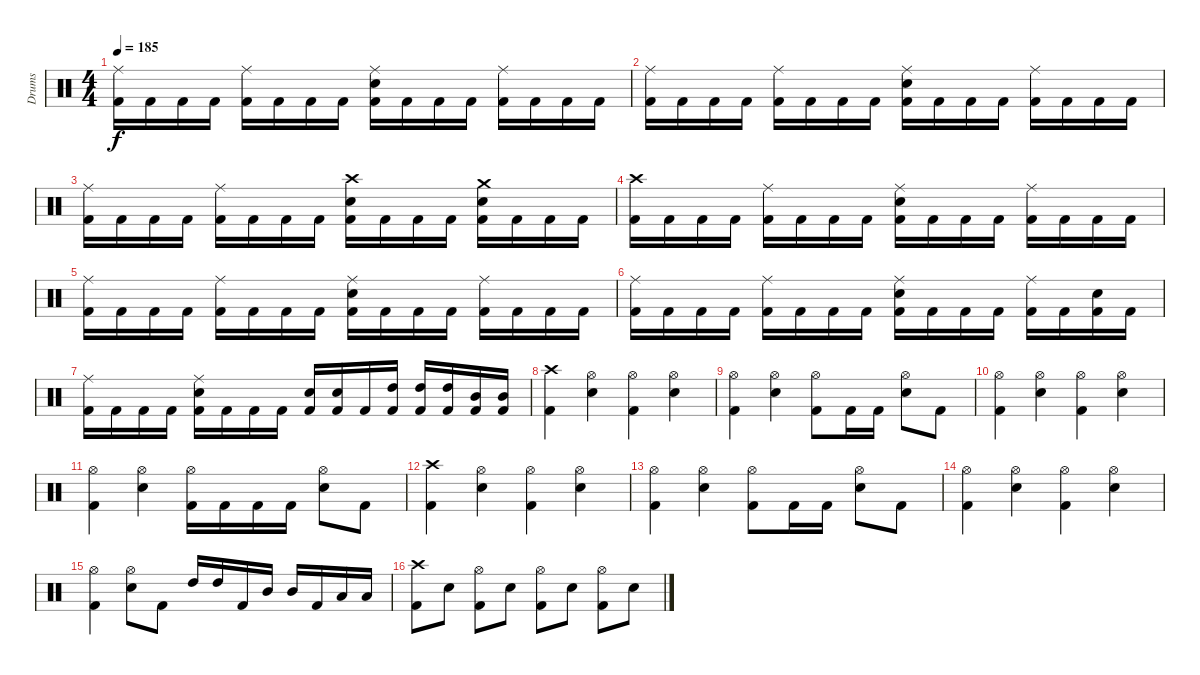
\track ("Drums" "Drums") {instrument percussion}
\staff {score}
\articulation defaults
\ts (4 4)
\tempo 185
\clef neutral
\ks c
("Ride (middle)" "Kick (hit) 2").16{dy f} "Kick (hit) 2".16 "Kick (hit) 2".16 "Kick (hit) 2".16 ("Ride (middle)" "Kick (hit) 2").16 "Kick (hit) 2".16 "Kick (hit) 2".16 "Kick (hit) 2".16 ("Ride (middle)" "Electric Snare (hit)" "Kick (hit) 2").16 "Kick (hit) 2".16 "Kick (hit) 2".16 "Kick (hit) 2".16 ("Ride (middle)" "Kick (hit) 2").16 "Kick (hit) 2".16 "Kick (hit) 2".16 "Kick (hit) 2".16 |
("Ride (middle)" "Kick (hit) 2").16 "Kick (hit) 2".16 "Kick (hit) 2".16 "Kick (hit) 2".16 ("Ride (middle)" "Kick (hit) 2").16 "Kick (hit) 2".16 "Kick (hit) 2".16 "Kick (hit) 2".16 ("Ride (middle)" "Electric Snare (hit)" "Kick (hit) 2").16 "Kick (hit) 2".16 "Kick (hit) 2".16 "Kick (hit) 2".16 ("Ride (middle)" "Kick (hit) 2").16 "Kick (hit) 2".16 "Kick (hit) 2".16 "Kick (hit) 2".16 |
("Ride (middle)" "Kick (hit) 2").16 "Kick (hit) 2".16 "Kick (hit) 2".16 "Kick (hit) 2".16 ("Ride (middle)" "Kick (hit) 2").16 "Kick (hit) 2".16 "Kick (hit) 2".16 "Kick (hit) 2".16 ("Crash high (hit)" "Electric Snare (hit)" "Kick (hit) 2").16 "Kick (hit) 2".16 "Kick (hit) 2".16 "Kick (hit) 2".16 ("Crash medium (hit)" "Electric Snare (hit)" "Kick (hit) 2").16 "Kick (hit) 2".16 "Kick (hit) 2".16 "Kick (hit) 2".16 |
("Crash high (hit)" "Kick (hit) 2").16 "Kick (hit) 2".16 "Kick (hit) 2".16 "Kick (hit) 2".16 ("Ride (middle)" "Kick (hit) 2").16 "Kick (hit) 2".16 "Kick (hit) 2".16 "Kick (hit) 2".16 ("Ride (middle)" "Electric Snare (hit)" "Kick (hit) 2").16 "Kick (hit) 2".16 "Kick (hit) 2".16 "Kick (hit) 2".16 ("Ride (middle)" "Kick (hit) 2").16 "Kick (hit) 2".16 "Kick (hit) 2".16 "Kick (hit) 2".16 |
("Ride (middle)" "Kick (hit) 2").16 "Kick (hit) 2".16 "Kick (hit) 2".16 "Kick (hit) 2".16 ("Ride (middle)" "Kick (hit) 2").16 "Kick (hit) 2".16 "Kick (hit) 2".16 "Kick (hit) 2".16 ("Ride (middle)" "Electric Snare (hit)" "Kick (hit) 2").16 "Kick (hit) 2".16 "Kick (hit) 2".16 "Kick (hit) 2".16 ("Ride (middle)" "Kick (hit) 2").16 "Kick (hit) 2".16 "Kick (hit) 2".16 "Kick (hit) 2".16 |
("Ride (middle)" "Kick (hit) 2").16 "Kick (hit) 2".16 "Kick (hit) 2".16 "Kick (hit) 2".16 ("Ride (middle)" "Kick (hit) 2").16 "Kick (hit) 2".16 "Kick (hit) 2".16 "Kick (hit) 2".16 ("Ride (middle)" "Electric Snare (hit)" "Kick (hit) 2").16 "Kick (hit) 2".16 "Kick (hit) 2".16 "Kick (hit) 2".16 ("Ride (middle)" "Kick (hit) 2").16 "Kick (hit) 2".16 ("Electric Snare (hit)" "Kick (hit) 2").16 "Kick (hit) 2".16 |
("Ride (middle)" "Kick (hit) 2").16 "Kick (hit) 2".16 "Kick (hit) 2".16 "Kick (hit) 2".16 ("Ride (middle)" "Electric Snare (hit)" "Kick (hit) 2").16 "Kick (hit) 2".16 "Kick (hit) 2".16 "Kick (hit) 2".16 ("Electric Snare (hit)" "Kick (hit) 2").16 ("Electric Snare (hit)" "Kick (hit) 2").16 "Kick (hit) 2".16 ("High Tom (hit)" "Kick (hit) 2").16 ("High Tom (hit)" "Kick (hit) 2").16 ("High Tom (hit)" "Kick (hit) 2").16 ("Mid Tom (hit)" "Kick (hit) 2").16 ("Mid Tom (hit)" "Kick (hit) 2").16 |
("Crash high (hit)" "Kick (hit) 2").4 ("Hi-Hat (open)" "Electric Snare (hit)").4 ("Hi-Hat (open)" "Kick (hit) 2").4 ("Hi-Hat (open)" "Electric Snare (hit)").4 |
("Hi-Hat (open)" "Kick (hit) 2").4 ("Hi-Hat (open)" "Electric Snare (hit)").4 ("Hi-Hat (open)" "Kick (hit) 2").8 "Kick (hit) 2".16 "Kick (hit) 2".16 ("Hi-Hat (open)" "Electric Snare (hit)").8 "Kick (hit) 2".8 |
("Hi-Hat (open)" "Kick (hit) 2").4 ("Hi-Hat (open)" "Electric Snare (hit)").4 ("Hi-Hat (open)" "Kick (hit) 2").4 ("Hi-Hat (open)" "Electric Snare (hit)").4 |
("Hi-Hat (open)" "Kick (hit) 2").4 ("Hi-Hat (open)" "Electric Snare (hit)").4 ("Hi-Hat (open)" "Kick (hit) 2").16 "Kick (hit) 2".16 "Kick (hit) 2".16 "Kick (hit) 2".16 ("Hi-Hat (open)" "Electric Snare (hit)").8 "Kick (hit) 2".8 |
("Crash high (hit)" "Kick (hit) 2").4 ("Hi-Hat (open)" "Electric Snare (hit)").4 ("Hi-Hat (open)" "Kick (hit) 2").4 ("Hi-Hat (open)" "Electric Snare (hit)").4 |
("Hi-Hat (open)" "Kick (hit) 2").4 ("Hi-Hat (open)" "Electric Snare (hit)").4 ("Hi-Hat (open)" "Kick (hit) 2").8 "Kick (hit) 2".16 "Kick (hit) 2".16 ("Hi-Hat (open)" "Electric Snare (hit)").8 "Kick (hit) 2".8 |
("Hi-Hat (open)" "Kick (hit) 2").4 ("Hi-Hat (open)" "Electric Snare (hit)").4 ("Hi-Hat (open)" "Kick (hit) 2").4 ("Hi-Hat (open)" "Electric Snare (hit)").4 |
("Hi-Hat (open)" "Kick (hit) 2").4 ("Hi-Hat (open)" "Electric Snare (hit)").8 "Kick (hit) 2".8 "High Tom (hit)".16 "High Tom (hit)".16 "Kick (hit) 2".16 "Mid Tom (hit)".16 "Mid Tom (hit)".16 "Kick (hit) 2".16 "Low Tom (hit)".16 "Low Tom (hit)".16 |
("Crash high (hit)" "Kick (hit) 2").8 "Electric Snare (hit)".8 ("Hi-Hat (open)" "Kick (hit) 2").8 "Electric Snare (hit)".8 ("Hi-Hat (open)" "Kick (hit) 2").8 "Electric Snare (hit)".8 ("Hi-Hat (open)" "Kick (hit) 2").8 "Electric Snare (hit)".8
